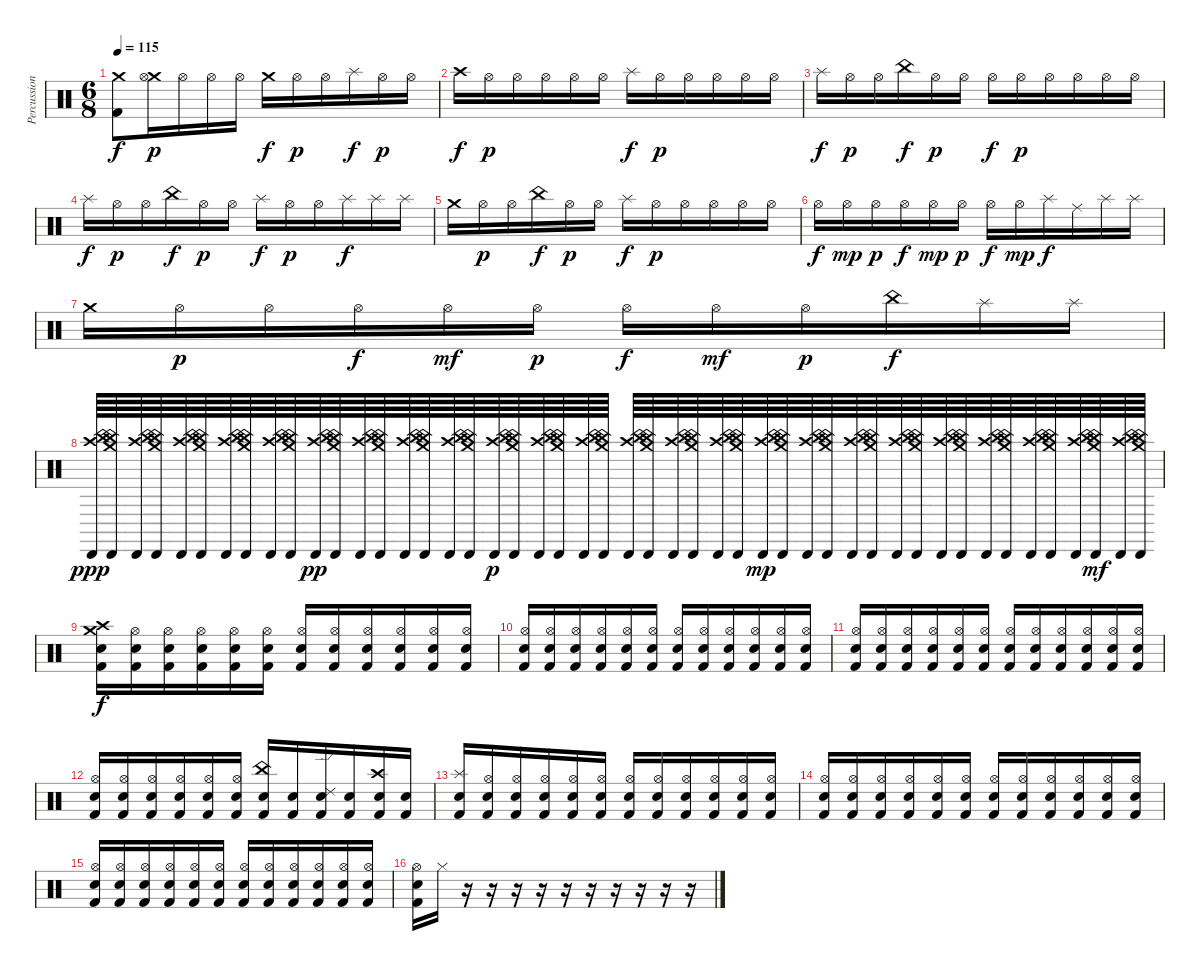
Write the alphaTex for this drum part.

\track ("Percussion" "Percussion") {instrument percussion}
\staff {score}
\articulation defaults
\ts (6 8)
\tempo 115
\clef neutral
\ks c
("Crash medium (hit)" "Kick (hit) 2").8{dy f} ("Crash medium (hit)" "Hi-Hat (open)").16{dy p} "Hi-Hat (open)".16 "Hi-Hat (open)".16 "Hi-Hat (open)".16 "Crash medium (hit)".16{dy f} "Hi-Hat (open)".16{dy p} "Hi-Hat (open)".16 "Splash (hit)".16{dy f} "Hi-Hat (open)".16{dy p} "Hi-Hat (open)".16 |
"Crash high (hit)".16{dy f} "Hi-Hat (open)".16{dy p} "Hi-Hat (open)".16 "Hi-Hat (open)".16 "Hi-Hat (open)".16 "Hi-Hat (open)".16 "Splash (hit)".16{dy f} "Hi-Hat (open)".16{dy p} "Hi-Hat (open)".16 "Hi-Hat (open)".16 "Hi-Hat (open)".16 "Hi-Hat (open)".16 |
"Splash (hit)".16{dy f} "Hi-Hat (open)".16{dy p} "Hi-Hat (open)".16 "China (hit)".16{dy f} "Hi-Hat (open)".16{dy p} "Hi-Hat (open)".16 "Hi-Hat (open)".16{dy f} "Hi-Hat (open)".16{dy p} "Hi-Hat (open)".16 "Hi-Hat (open)".16 "Hi-Hat (open)".16 "Hi-Hat (open)".16 |
"Splash (hit)".16{dy f} "Hi-Hat (open)".16{dy p} "Hi-Hat (open)".16 "China (hit)".16{dy f} "Hi-Hat (open)".16{dy p} "Hi-Hat (open)".16 "Splash (hit)".16{dy f} "Hi-Hat (open)".16{dy p} "Hi-Hat (open)".16 "Splash (hit)".16{dy f} "Splash (hit)".16 "Splash (hit)".16 |
"Crash medium (hit)".16 "Hi-Hat (open)".16{dy p} "Hi-Hat (open)".16 "China (hit)".16{dy f} "Hi-Hat (open)".16{dy p} "Hi-Hat (open)".16 "Splash (hit)".16{dy f} "Hi-Hat (open)".16{dy p} "Hi-Hat (open)".16 "Hi-Hat (open)".16 "Hi-Hat (open)".16 "Hi-Hat (open)".16 |
"Hi-Hat (open)".16{dy f} "Hi-Hat (open)".16{dy mp} "Hi-Hat (open)".16{dy p} "Hi-Hat (open)".16{dy f} "Hi-Hat (open)".16{dy mp} "Hi-Hat (open)".16{dy p} "Hi-Hat (open)".16{dy f} "Hi-Hat (open)".16{dy mp} "Splash (hit)".16{dy f} "Ride (middle)".16 "Splash (hit)".16 "Splash (hit)".16 |
"Crash medium (hit)".16 "Hi-Hat (open)".16{dy p} "Hi-Hat (open)".16 "Hi-Hat (open)".16{dy f} "Hi-Hat (open)".16{dy mf} "Hi-Hat (open)".16{dy p} "Hi-Hat (open)".16{dy f} "Hi-Hat (open)".16{dy mf} "Hi-Hat (open)".16{dy p} "China (hit)".16{dy f} "Splash (hit)".16 "Splash (hit)".16 |
("Crash high (hit)" "Cabasa (hit)" "China (hit)").64{dy ppp} ("Crash medium (hit)" "Cabasa (hit)" "China (hit)").64 ("Crash high (hit)" "Cabasa (hit)" "China (hit)").64 ("Crash medium (hit)" "Cabasa (hit)" "China (hit)").64 ("Crash high (hit)" "Cabasa (hit)" "China (hit)").64 ("Crash medium (hit)" "Cabasa (hit)" "China (hit)").64 ("Crash high (hit)" "Cabasa (hit)" "China (hit)").64 ("Crash medium (hit)" "Cabasa (hit)" "China (hit)").64 ("Crash high (hit)" "Cabasa (hit)" "China (hit)").64 ("Crash medium (hit)" "Cabasa (hit)" "China (hit)").64 ("Crash high (hit)" "Cabasa (hit)" "China (hit)").64{dy pp} ("Crash medium (hit)" "Cabasa (hit)" "China (hit)").64 ("Crash high (hit)" "Cabasa (hit)" "China (hit)").64 ("Crash medium (hit)" "Cabasa (hit)" "China (hit)").64 ("Crash high (hit)" "Cabasa (hit)" "China (hit)").64 ("Crash medium (hit)" "Cabasa (hit)" "China (hit)").64 ("Crash high (hit)" "Cabasa (hit)" "China (hit)").64 ("Crash medium (hit)" "Cabasa (hit)" "China (hit)").64 ("Crash high (hit)" "Cabasa (hit)" "China (hit)").64{dy p} ("Crash medium (hit)" "Cabasa (hit)" "China (hit)").64 ("Crash high (hit)" "Cabasa (hit)" "China (hit)").64 ("Crash medium (hit)" "Cabasa (hit)" "China (hit)").64 ("Crash high (hit)" "Cabasa (hit)" "China (hit)").64 ("Crash medium (hit)" "Cabasa (hit)" "China (hit)").64 ("Crash high (hit)" "Cabasa (hit)" "China (hit)").64 ("Crash medium (hit)" "Cabasa (hit)" "China (hit)").64 ("Crash high (hit)" "Cabasa (hit)" "China (hit)").64 ("Crash medium (hit)" "Cabasa (hit)" "China (hit)").64 ("Crash high (hit)" "Cabasa (hit)" "China (hit)").64 ("Crash medium (hit)" "Cabasa (hit)" "China (hit)").64 ("Crash high (hit)" "Cabasa (hit)" "China (hit)").64{dy mp} ("Crash medium (hit)" "Cabasa (hit)" "China (hit)").64 ("Crash high (hit)" "Cabasa (hit)" "China (hit)").64 ("Crash medium (hit)" "Cabasa (hit)" "China (hit)").64 ("Crash high (hit)" "Cabasa (hit)" "China (hit)").64 ("Crash medium (hit)" "Cabasa (hit)" "China (hit)").64 ("Crash high (hit)" "Cabasa (hit)" "China (hit)").64 ("Crash medium (hit)" "Cabasa (hit)" "China (hit)").64 ("Crash high (hit)" "Cabasa (hit)" "China (hit)").64 ("Crash medium (hit)" "Cabasa (hit)" "China (hit)").64 ("Crash high (hit)" "Cabasa (hit)" "China (hit)").64 ("Crash medium (hit)" "Cabasa (hit)" "China (hit)").64 ("Crash high (hit)" "Cabasa (hit)" "China (hit)").64 ("Crash medium (hit)" "Cabasa (hit)" "China (hit)").64 ("Crash high (hit)" "Cabasa (hit)" "China (hit)").64 ("Crash medium (hit)" "Cabasa (hit)" "China (hit)").64{dy mf} ("Crash high (hit)" "Cabasa (hit)" "China (hit)").64 ("Crash medium (hit)" "Cabasa (hit)" "China (hit)").64 |
("Crash medium (hit)" "Crash high (hit)" "Electric Snare (hit)" "Kick (hit) 2").16{dy f} ("Hi-Hat (open)" "Electric Snare (hit)" "Kick (hit) 2").16 ("Hi-Hat (open)" "Electric Snare (hit)" "Kick (hit) 2").16 ("Hi-Hat (open)" "Electric Snare (hit)" "Kick (hit) 2").16 ("Hi-Hat (open)" "Electric Snare (hit)" "Kick (hit) 2").16 ("Hi-Hat (open)" "Electric Snare (hit)" "Kick (hit) 2").16 ("Hi-Hat (open)" "Electric Snare (hit)" "Kick (hit) 2").16 ("Hi-Hat (open)" "Electric Snare (hit)" "Kick (hit) 2").16 ("Hi-Hat (open)" "Electric Snare (hit)" "Kick (hit) 2").16 ("Hi-Hat (open)" "Electric Snare (hit)" "Kick (hit) 2").16 ("Hi-Hat (open)" "Electric Snare (hit)" "Kick (hit) 2").16 ("Hi-Hat (open)" "Electric Snare (hit)" "Kick (hit) 2").16 |
("Hi-Hat (open)" "Electric Snare (hit)" "Kick (hit) 2").16 ("Hi-Hat (open)" "Electric Snare (hit)" "Kick (hit) 2").16 ("Hi-Hat (open)" "Electric Snare (hit)" "Kick (hit) 2").16 ("Hi-Hat (open)" "Electric Snare (hit)" "Kick (hit) 2").16 ("Hi-Hat (open)" "Electric Snare (hit)" "Kick (hit) 2").16 ("Hi-Hat (open)" "Electric Snare (hit)" "Kick (hit) 2").16 ("Hi-Hat (open)" "Electric Snare (hit)" "Kick (hit) 2").16 ("Hi-Hat (open)" "Electric Snare (hit)" "Kick (hit) 2").16 ("Hi-Hat (open)" "Electric Snare (hit)" "Kick (hit) 2").16 ("Hi-Hat (open)" "Electric Snare (hit)" "Kick (hit) 2").16 ("Hi-Hat (open)" "Electric Snare (hit)" "Kick (hit) 2").16 ("Hi-Hat (open)" "Electric Snare (hit)" "Kick (hit) 2").16 |
("Hi-Hat (open)" "Electric Snare (hit)" "Kick (hit) 2").16 ("Hi-Hat (open)" "Electric Snare (hit)" "Kick (hit) 2").16 ("Hi-Hat (open)" "Electric Snare (hit)" "Kick (hit) 2").16 ("Hi-Hat (open)" "Electric Snare (hit)" "Kick (hit) 2").16 ("Hi-Hat (open)" "Electric Snare (hit)" "Kick (hit) 2").16 ("Hi-Hat (open)" "Electric Snare (hit)" "Kick (hit) 2").16 ("Hi-Hat (open)" "Electric Snare (hit)" "Kick (hit) 2").16 ("Hi-Hat (open)" "Electric Snare (hit)" "Kick (hit) 2").16 ("Hi-Hat (open)" "Electric Snare (hit)" "Kick (hit) 2").16 ("Hi-Hat (open)" "Electric Snare (hit)" "Kick (hit) 2").16 ("Hi-Hat (open)" "Electric Snare (hit)" "Kick (hit) 2").16 ("Hi-Hat (open)" "Electric Snare (hit)" "Kick (hit) 2").16 |
("Hi-Hat (open)" "Electric Snare (hit)" "Kick (hit) 2").16 ("Hi-Hat (open)" "Electric Snare (hit)" "Kick (hit) 2").16 ("Hi-Hat (open)" "Electric Snare (hit)" "Kick (hit) 2").16 ("Hi-Hat (open)" "Electric Snare (hit)" "Kick (hit) 2").16 ("Hi-Hat (open)" "Electric Snare (hit)" "Kick (hit) 2").16 ("Hi-Hat (open)" "Electric Snare (hit)" "Kick (hit) 2").16 ("China (hit)" "Electric Snare (hit)" "Kick (hit) 2").16 ("Electric Snare (hit)" "Kick (hit) 2").16 ("Ride (edge) 2" "Electric Snare (hit)" "Kick (hit) 2").16 ("Electric Snare (hit)" "Kick (hit) 2").16 ("Crash high (hit)" "Electric Snare (hit)" "Kick (hit) 2").16 ("Electric Snare (hit)" "Kick (hit) 2").16 |
("Splash (hit)" "Electric Snare (hit)" "Kick (hit) 2").16 ("Hi-Hat (open)" "Electric Snare (hit)" "Kick (hit) 2").16 ("Hi-Hat (open)" "Electric Snare (hit)" "Kick (hit) 2").16 ("Hi-Hat (open)" "Electric Snare (hit)" "Kick (hit) 2").16 ("Hi-Hat (open)" "Electric Snare (hit)" "Kick (hit) 2").16 ("Hi-Hat (open)" "Electric Snare (hit)" "Kick (hit) 2").16 ("Hi-Hat (open)" "Electric Snare (hit)" "Kick (hit) 2").16 ("Hi-Hat (open)" "Electric Snare (hit)" "Kick (hit) 2").16 ("Hi-Hat (open)" "Electric Snare (hit)" "Kick (hit) 2").16 ("Hi-Hat (open)" "Electric Snare (hit)" "Kick (hit) 2").16 ("Hi-Hat (open)" "Electric Snare (hit)" "Kick (hit) 2").16 ("Hi-Hat (open)" "Electric Snare (hit)" "Kick (hit) 2").16 |
("Hi-Hat (open)" "Electric Snare (hit)" "Kick (hit) 2").16 ("Hi-Hat (open)" "Electric Snare (hit)" "Kick (hit) 2").16 ("Hi-Hat (open)" "Electric Snare (hit)" "Kick (hit) 2").16 ("Hi-Hat (open)" "Electric Snare (hit)" "Kick (hit) 2").16 ("Hi-Hat (open)" "Electric Snare (hit)" "Kick (hit) 2").16 ("Hi-Hat (open)" "Electric Snare (hit)" "Kick (hit) 2").16 ("Hi-Hat (open)" "Electric Snare (hit)" "Kick (hit) 2").16 ("Hi-Hat (open)" "Electric Snare (hit)" "Kick (hit) 2").16 ("Hi-Hat (open)" "Electric Snare (hit)" "Kick (hit) 2").16 ("Hi-Hat (open)" "Electric Snare (hit)" "Kick (hit) 2").16 ("Hi-Hat (open)" "Electric Snare (hit)" "Kick (hit) 2").16 ("Hi-Hat (open)" "Electric Snare (hit)" "Kick (hit) 2").16 |
("Hi-Hat (open)" "Electric Snare (hit)" "Kick (hit) 2").16 ("Hi-Hat (open)" "Electric Snare (hit)" "Kick (hit) 2").16 ("Hi-Hat (open)" "Electric Snare (hit)" "Kick (hit) 2").16 ("Hi-Hat (open)" "Electric Snare (hit)" "Kick (hit) 2").16 ("Hi-Hat (open)" "Electric Snare (hit)" "Kick (hit) 2").16 ("Hi-Hat (open)" "Electric Snare (hit)" "Kick (hit) 2").16 ("Hi-Hat (open)" "Electric Snare (hit)" "Kick (hit) 2").16 ("Hi-Hat (open)" "Electric Snare (hit)" "Kick (hit) 2").16 ("Hi-Hat (open)" "Electric Snare (hit)" "Kick (hit) 2").16 ("Hi-Hat (open)" "Electric Snare (hit)" "Kick (hit) 2").16 ("Hi-Hat (open)" "Electric Snare (hit)" "Kick (hit) 2").16 ("Hi-Hat (open)" "Electric Snare (hit)" "Kick (hit) 2").16 |
("Hi-Hat (open)" "Electric Snare (hit)" "Kick (hit) 2").16 "Hi-Hat (closed)".16 r.16 r.16 r.16 r.16 r.16 r.16 r.16 r.16 r.16 r.16
